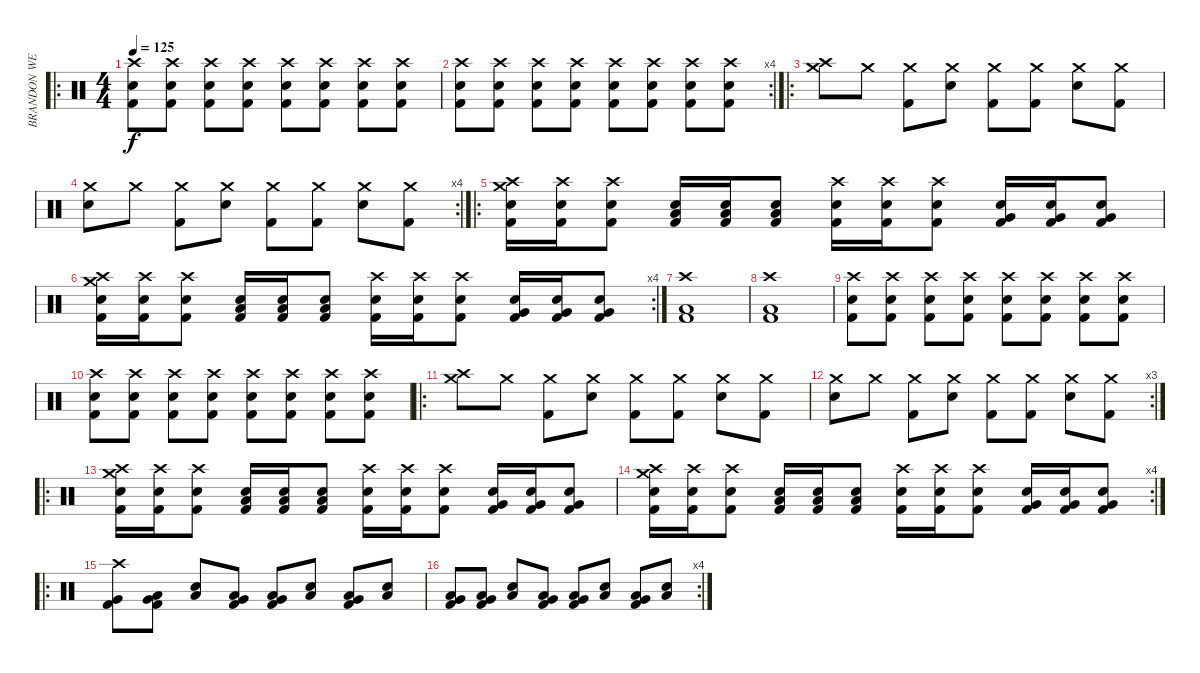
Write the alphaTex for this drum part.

\track ("BRANDON WEBB" "BRANDON WE") {instrument percussion}
\staff {score}
\articulation defaults
\ro
\ts (4 4)
\tempo 125
\clef neutral
\ks c
("Crash high (hit)" "Kick (hit) 2" "Snare (hit) 2").8{dy f} ("Crash high (hit)" "Kick (hit) 2" "Snare (hit) 2").8 ("Crash high (hit)" "Kick (hit) 2" "Snare (hit) 2").8 ("Crash high (hit)" "Kick (hit) 2" "Snare (hit) 2").8 ("Crash high (hit)" "Kick (hit) 2" "Snare (hit) 2").8 ("Crash high (hit)" "Kick (hit) 2" "Snare (hit) 2").8 ("Crash high (hit)" "Kick (hit) 2" "Snare (hit) 2").8 ("Crash high (hit)" "Kick (hit) 2" "Snare (hit) 2").8 |
\rc 4
("Crash high (hit)" "Kick (hit) 2" "Snare (hit) 2").8 ("Crash high (hit)" "Kick (hit) 2" "Snare (hit) 2").8 ("Crash high (hit)" "Kick (hit) 2" "Snare (hit) 2").8 ("Crash high (hit)" "Kick (hit) 2" "Snare (hit) 2").8 ("Crash high (hit)" "Kick (hit) 2" "Snare (hit) 2").8 ("Crash high (hit)" "Kick (hit) 2" "Snare (hit) 2").8 ("Crash high (hit)" "Kick (hit) 2" "Snare (hit) 2").8 ("Crash high (hit)" "Kick (hit) 2" "Snare (hit) 2").8 |
\ro
("Crash high (hit)" "Crash medium (hit)").8 "Crash medium (hit)".8 ("Crash medium (hit)" "Kick (hit) 2").8 ("Crash medium (hit)" "Snare (hit) 2").8 ("Crash medium (hit)" "Kick (hit) 2").8 ("Crash medium (hit)" "Kick (hit) 2").8 ("Crash medium (hit)" "Snare (hit) 2").8 ("Crash medium (hit)" "Kick (hit) 2").8 |
\rc 4
("Crash medium (hit)" "Snare (hit) 2").8 "Crash medium (hit)".8 ("Crash medium (hit)" "Kick (hit) 2").8 ("Crash medium (hit)" "Snare (hit) 2").8 ("Crash medium (hit)" "Kick (hit) 2").8 ("Crash medium (hit)" "Kick (hit) 2").8 ("Crash medium (hit)" "Snare (hit) 2").8 ("Crash medium (hit)" "Kick (hit) 2").8 |
\ro
("Crash high (hit)" "Crash medium (hit)" "Kick (hit) 2" "Snare (hit) 2").16 ("Crash high (hit)" "Kick (hit) 2" "Snare (hit) 2").16 ("Crash high (hit)" "Kick (hit) 2" "Snare (hit) 2").8 ("Low Floor Tom (hit)" "Kick (hit) 2" "Snare (hit) 2").16 ("Low Floor Tom (hit)" "Kick (hit) 2" "Snare (hit) 2").16 ("Low Floor Tom (hit)" "Kick (hit) 2" "Snare (hit) 2").8 ("Crash high (hit)" "Snare (hit) 2" "Kick (hit) 2").16 ("Crash high (hit)" "Snare (hit) 2" "Kick (hit) 2").16 ("Crash high (hit)" "Snare (hit) 2" "Kick (hit) 2").8 ("Snare (hit) 2" "Kick (hit) 2" "Very Low Tom (hit)").16 ("Snare (hit) 2" "Kick (hit) 2" "Very Low Tom (hit)").16 ("Snare (hit) 2" "Kick (hit) 2" "Very Low Tom (hit)").8 |
\rc 4
("Crash high (hit)" "Crash medium (hit)" "Kick (hit) 2" "Snare (hit) 2").16 ("Crash high (hit)" "Kick (hit) 2" "Snare (hit) 2").16 ("Crash high (hit)" "Kick (hit) 2" "Snare (hit) 2").8 ("Low Floor Tom (hit)" "Kick (hit) 2" "Snare (hit) 2").16 ("Low Floor Tom (hit)" "Kick (hit) 2" "Snare (hit) 2").16 ("Low Floor Tom (hit)" "Kick (hit) 2" "Snare (hit) 2").8 ("Crash high (hit)" "Snare (hit) 2" "Kick (hit) 2").16 ("Crash high (hit)" "Snare (hit) 2" "Kick (hit) 2").16 ("Crash high (hit)" "Snare (hit) 2" "Kick (hit) 2").8 ("Snare (hit) 2" "Kick (hit) 2" "Very Low Tom (hit)").16 ("Snare (hit) 2" "Kick (hit) 2" "Very Low Tom (hit)").16 ("Snare (hit) 2" "Kick (hit) 2" "Very Low Tom (hit)").8 |
("Crash high (hit)" "Kick (hit) 2" "Low Floor Tom (hit)").1 |
("Crash high (hit)" "Kick (hit) 2" "Low Floor Tom (hit)").1 |
("Crash high (hit)" "Kick (hit) 2" "Snare (hit) 2").8 ("Crash high (hit)" "Kick (hit) 2" "Snare (hit) 2").8 ("Crash high (hit)" "Kick (hit) 2" "Snare (hit) 2").8 ("Crash high (hit)" "Kick (hit) 2" "Snare (hit) 2").8 ("Crash high (hit)" "Kick (hit) 2" "Snare (hit) 2").8 ("Crash high (hit)" "Kick (hit) 2" "Snare (hit) 2").8 ("Crash high (hit)" "Kick (hit) 2" "Snare (hit) 2").8 ("Crash high (hit)" "Kick (hit) 2" "Snare (hit) 2").8 |
("Crash high (hit)" "Kick (hit) 2" "Snare (hit) 2").8 ("Crash high (hit)" "Kick (hit) 2" "Snare (hit) 2").8 ("Crash high (hit)" "Kick (hit) 2" "Snare (hit) 2").8 ("Crash high (hit)" "Kick (hit) 2" "Snare (hit) 2").8 ("Crash high (hit)" "Kick (hit) 2" "Snare (hit) 2").8 ("Crash high (hit)" "Kick (hit) 2" "Snare (hit) 2").8 ("Crash high (hit)" "Kick (hit) 2" "Snare (hit) 2").8 ("Crash high (hit)" "Kick (hit) 2" "Snare (hit) 2").8 |
\ro
("Crash high (hit)" "Crash medium (hit)").8 "Crash medium (hit)".8 ("Crash medium (hit)" "Kick (hit) 2").8 ("Crash medium (hit)" "Snare (hit) 2").8 ("Crash medium (hit)" "Kick (hit) 2").8 ("Crash medium (hit)" "Kick (hit) 2").8 ("Crash medium (hit)" "Snare (hit) 2").8 ("Crash medium (hit)" "Kick (hit) 2").8 |
\rc 3
("Crash medium (hit)" "Snare (hit) 2").8 "Crash medium (hit)".8 ("Crash medium (hit)" "Kick (hit) 2").8 ("Crash medium (hit)" "Snare (hit) 2").8 ("Crash medium (hit)" "Kick (hit) 2").8 ("Crash medium (hit)" "Kick (hit) 2").8 ("Crash medium (hit)" "Snare (hit) 2").8 ("Crash medium (hit)" "Kick (hit) 2").8 |
\ro
("Crash high (hit)" "Crash medium (hit)" "Kick (hit) 2" "Snare (hit) 2").16 ("Crash high (hit)" "Kick (hit) 2" "Snare (hit) 2").16 ("Crash high (hit)" "Kick (hit) 2" "Snare (hit) 2").8 ("Low Floor Tom (hit)" "Kick (hit) 2" "Snare (hit) 2").16 ("Low Floor Tom (hit)" "Kick (hit) 2" "Snare (hit) 2").16 ("Low Floor Tom (hit)" "Kick (hit) 2" "Snare (hit) 2").8 ("Crash high (hit)" "Snare (hit) 2" "Kick (hit) 2").16 ("Crash high (hit)" "Snare (hit) 2" "Kick (hit) 2").16 ("Crash high (hit)" "Snare (hit) 2" "Kick (hit) 2").8 ("Snare (hit) 2" "Kick (hit) 2" "Very Low Tom (hit)").16 ("Snare (hit) 2" "Kick (hit) 2" "Very Low Tom (hit)").16 ("Snare (hit) 2" "Kick (hit) 2" "Very Low Tom (hit)").8 |
\rc 4
("Crash high (hit)" "Crash medium (hit)" "Kick (hit) 2" "Snare (hit) 2").16 ("Crash high (hit)" "Kick (hit) 2" "Snare (hit) 2").16 ("Crash high (hit)" "Kick (hit) 2" "Snare (hit) 2").8 ("Low Floor Tom (hit)" "Kick (hit) 2" "Snare (hit) 2").16 ("Low Floor Tom (hit)" "Kick (hit) 2" "Snare (hit) 2").16 ("Low Floor Tom (hit)" "Kick (hit) 2" "Snare (hit) 2").8 ("Crash high (hit)" "Snare (hit) 2" "Kick (hit) 2").16 ("Crash high (hit)" "Snare (hit) 2" "Kick (hit) 2").16 ("Crash high (hit)" "Snare (hit) 2" "Kick (hit) 2").8 ("Snare (hit) 2" "Kick (hit) 2" "Very Low Tom (hit)").16 ("Snare (hit) 2" "Kick (hit) 2" "Very Low Tom (hit)").16 ("Snare (hit) 2" "Kick (hit) 2" "Very Low Tom (hit)").8 |
\ro
("Crash high (hit)" "Kick (hit) 2" "Very Low Tom (hit)").8 ("Low Floor Tom (hit)" "Kick (hit) 2" "Very Low Tom (hit)").8 ("Snare (hit) 2" "Low Floor Tom (hit)").8 ("Low Floor Tom (hit)" "Kick (hit) 2" "Very Low Tom (hit)").8 ("Low Floor Tom (hit)" "Kick (hit) 2" "Very Low Tom (hit)").8 ("Snare (hit) 2" "Low Floor Tom (hit)").8 ("Low Floor Tom (hit)" "Kick (hit) 2" "Very Low Tom (hit)").8 ("Snare (hit) 2" "Low Floor Tom (hit)").8 |
\rc 4
("Low Floor Tom (hit)" "Kick (hit) 2" "Very Low Tom (hit)").8 ("Low Floor Tom (hit)" "Kick (hit) 2" "Very Low Tom (hit)").8 ("Snare (hit) 2" "Low Floor Tom (hit)").8 ("Low Floor Tom (hit)" "Kick (hit) 2" "Very Low Tom (hit)").8 ("Low Floor Tom (hit)" "Kick (hit) 2" "Very Low Tom (hit)").8 ("Snare (hit) 2" "Low Floor Tom (hit)").8 ("Low Floor Tom (hit)" "Kick (hit) 2" "Very Low Tom (hit)").8 ("Snare (hit) 2" "Low Floor Tom (hit)").8
